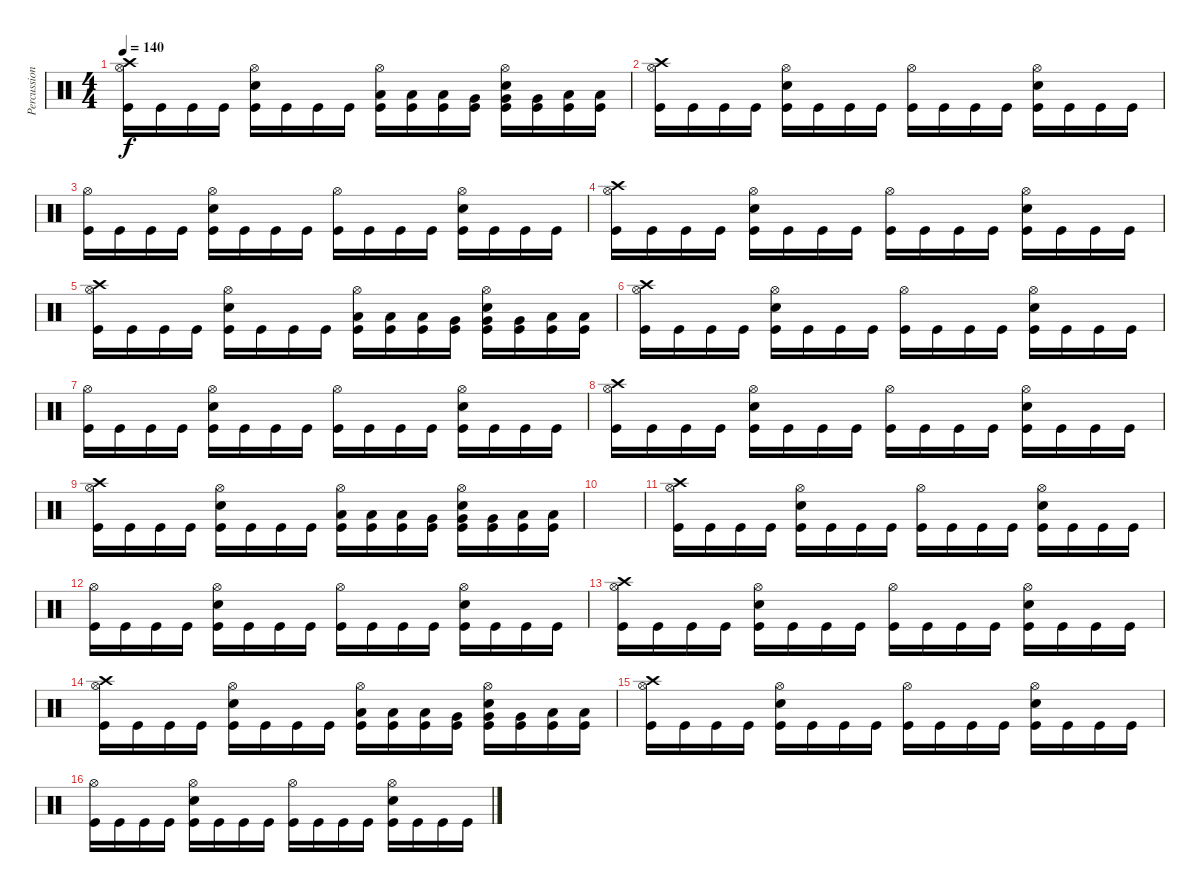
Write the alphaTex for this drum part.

\track ("Percussion" "Percussion") {instrument percussion}
\staff {score}
\articulation defaults
\ts (4 4)
\tempo 140
\clef neutral
\ks c
("Crash high (hit)" "Hi-Hat (open)" "Kick (hit)").16{dy f} "Kick (hit)".16 "Kick (hit)".16 "Kick (hit)".16 ("Hi-Hat (open)" "Electric Snare (hit)" "Kick (hit)").16 "Kick (hit)".16 "Kick (hit)".16 "Kick (hit)".16 ("Low Tom (hit)" "Hi-Hat (open)" "Kick (hit)").16 ("Low Tom (hit)" "Kick (hit)").16 ("Low Tom (hit)" "Kick (hit)").16 ("Very Low Tom (hit)" "Kick (hit)").16 ("Very Low Tom (hit)" "Hi-Hat (open)" "Electric Snare (hit)" "Kick (hit)").16 ("Very Low Tom (hit)" "Kick (hit)").16 ("Low Floor Tom (hit)" "Kick (hit)").16 ("Low Floor Tom (hit)" "Kick (hit)").16 |
("Crash high (hit)" "Hi-Hat (open)" "Kick (hit)").16 "Kick (hit)".16 "Kick (hit)".16 "Kick (hit)".16 ("Hi-Hat (open)" "Electric Snare (hit)" "Kick (hit)").16 "Kick (hit)".16 "Kick (hit)".16 "Kick (hit)".16 ("Hi-Hat (open)" "Kick (hit)").16 "Kick (hit)".16 "Kick (hit)".16 "Kick (hit)".16 ("Hi-Hat (open)" "Electric Snare (hit)" "Kick (hit)").16 "Kick (hit)".16 "Kick (hit)".16 "Kick (hit)".16 |
("Hi-Hat (open)" "Kick (hit)").16 "Kick (hit)".16 "Kick (hit)".16 "Kick (hit)".16 ("Hi-Hat (open)" "Electric Snare (hit)" "Kick (hit)").16 "Kick (hit)".16 "Kick (hit)".16 "Kick (hit)".16 ("Hi-Hat (open)" "Kick (hit)").16 "Kick (hit)".16 "Kick (hit)".16 "Kick (hit)".16 ("Hi-Hat (open)" "Electric Snare (hit)" "Kick (hit)").16 "Kick (hit)".16 "Kick (hit)".16 "Kick (hit)".16 |
("Crash high (hit)" "Hi-Hat (open)" "Kick (hit)").16 "Kick (hit)".16 "Kick (hit)".16 "Kick (hit)".16 ("Hi-Hat (open)" "Electric Snare (hit)" "Kick (hit)").16 "Kick (hit)".16 "Kick (hit)".16 "Kick (hit)".16 ("Hi-Hat (open)" "Kick (hit)").16 "Kick (hit)".16 "Kick (hit)".16 "Kick (hit)".16 ("Hi-Hat (open)" "Electric Snare (hit)" "Kick (hit)").16 "Kick (hit)".16 "Kick (hit)".16 "Kick (hit)".16 |
("Crash high (hit)" "Hi-Hat (open)" "Kick (hit)").16 "Kick (hit)".16 "Kick (hit)".16 "Kick (hit)".16 ("Hi-Hat (open)" "Electric Snare (hit)" "Kick (hit)").16 "Kick (hit)".16 "Kick (hit)".16 "Kick (hit)".16 ("Low Tom (hit)" "Hi-Hat (open)" "Kick (hit)").16 ("Low Tom (hit)" "Kick (hit)").16 ("Low Tom (hit)" "Kick (hit)").16 ("Very Low Tom (hit)" "Kick (hit)").16 ("Very Low Tom (hit)" "Hi-Hat (open)" "Electric Snare (hit)" "Kick (hit)").16 ("Very Low Tom (hit)" "Kick (hit)").16 ("Low Floor Tom (hit)" "Kick (hit)").16 ("Low Floor Tom (hit)" "Kick (hit)").16 |
("Crash high (hit)" "Hi-Hat (open)" "Kick (hit)").16 "Kick (hit)".16 "Kick (hit)".16 "Kick (hit)".16 ("Hi-Hat (open)" "Electric Snare (hit)" "Kick (hit)").16 "Kick (hit)".16 "Kick (hit)".16 "Kick (hit)".16 ("Hi-Hat (open)" "Kick (hit)").16 "Kick (hit)".16 "Kick (hit)".16 "Kick (hit)".16 ("Hi-Hat (open)" "Electric Snare (hit)" "Kick (hit)").16 "Kick (hit)".16 "Kick (hit)".16 "Kick (hit)".16 |
("Hi-Hat (open)" "Kick (hit)").16 "Kick (hit)".16 "Kick (hit)".16 "Kick (hit)".16 ("Hi-Hat (open)" "Electric Snare (hit)" "Kick (hit)").16 "Kick (hit)".16 "Kick (hit)".16 "Kick (hit)".16 ("Hi-Hat (open)" "Kick (hit)").16 "Kick (hit)".16 "Kick (hit)".16 "Kick (hit)".16 ("Hi-Hat (open)" "Electric Snare (hit)" "Kick (hit)").16 "Kick (hit)".16 "Kick (hit)".16 "Kick (hit)".16 |
("Crash high (hit)" "Hi-Hat (open)" "Kick (hit)").16 "Kick (hit)".16 "Kick (hit)".16 "Kick (hit)".16 ("Hi-Hat (open)" "Electric Snare (hit)" "Kick (hit)").16 "Kick (hit)".16 "Kick (hit)".16 "Kick (hit)".16 ("Hi-Hat (open)" "Kick (hit)").16 "Kick (hit)".16 "Kick (hit)".16 "Kick (hit)".16 ("Hi-Hat (open)" "Electric Snare (hit)" "Kick (hit)").16 "Kick (hit)".16 "Kick (hit)".16 "Kick (hit)".16 |
("Crash high (hit)" "Hi-Hat (open)" "Kick (hit)").16 "Kick (hit)".16 "Kick (hit)".16 "Kick (hit)".16 ("Hi-Hat (open)" "Electric Snare (hit)" "Kick (hit)").16 "Kick (hit)".16 "Kick (hit)".16 "Kick (hit)".16 ("Low Tom (hit)" "Hi-Hat (open)" "Kick (hit)").16 ("Low Tom (hit)" "Kick (hit)").16 ("Low Tom (hit)" "Kick (hit)").16 ("Very Low Tom (hit)" "Kick (hit)").16 ("Very Low Tom (hit)" "Hi-Hat (open)" "Electric Snare (hit)" "Kick (hit)").16 ("Very Low Tom (hit)" "Kick (hit)").16 ("Low Floor Tom (hit)" "Kick (hit)").16 ("Low Floor Tom (hit)" "Kick (hit)").16 |
|
("Crash high (hit)" "Hi-Hat (open)" "Kick (hit)").16 "Kick (hit)".16 "Kick (hit)".16 "Kick (hit)".16 ("Hi-Hat (open)" "Electric Snare (hit)" "Kick (hit)").16 "Kick (hit)".16 "Kick (hit)".16 "Kick (hit)".16 ("Hi-Hat (open)" "Kick (hit)").16 "Kick (hit)".16 "Kick (hit)".16 "Kick (hit)".16 ("Hi-Hat (open)" "Electric Snare (hit)" "Kick (hit)").16 "Kick (hit)".16 "Kick (hit)".16 "Kick (hit)".16 |
("Hi-Hat (open)" "Kick (hit)").16 "Kick (hit)".16 "Kick (hit)".16 "Kick (hit)".16 ("Hi-Hat (open)" "Electric Snare (hit)" "Kick (hit)").16 "Kick (hit)".16 "Kick (hit)".16 "Kick (hit)".16 ("Hi-Hat (open)" "Kick (hit)").16 "Kick (hit)".16 "Kick (hit)".16 "Kick (hit)".16 ("Hi-Hat (open)" "Electric Snare (hit)" "Kick (hit)").16 "Kick (hit)".16 "Kick (hit)".16 "Kick (hit)".16 |
("Crash high (hit)" "Hi-Hat (open)" "Kick (hit)").16 "Kick (hit)".16 "Kick (hit)".16 "Kick (hit)".16 ("Hi-Hat (open)" "Electric Snare (hit)" "Kick (hit)").16 "Kick (hit)".16 "Kick (hit)".16 "Kick (hit)".16 ("Hi-Hat (open)" "Kick (hit)").16 "Kick (hit)".16 "Kick (hit)".16 "Kick (hit)".16 ("Hi-Hat (open)" "Electric Snare (hit)" "Kick (hit)").16 "Kick (hit)".16 "Kick (hit)".16 "Kick (hit)".16 |
("Crash high (hit)" "Hi-Hat (open)" "Kick (hit)").16 "Kick (hit)".16 "Kick (hit)".16 "Kick (hit)".16 ("Hi-Hat (open)" "Electric Snare (hit)" "Kick (hit)").16 "Kick (hit)".16 "Kick (hit)".16 "Kick (hit)".16 ("Low Tom (hit)" "Hi-Hat (open)" "Kick (hit)").16 ("Low Tom (hit)" "Kick (hit)").16 ("Low Tom (hit)" "Kick (hit)").16 ("Very Low Tom (hit)" "Kick (hit)").16 ("Very Low Tom (hit)" "Hi-Hat (open)" "Electric Snare (hit)" "Kick (hit)").16 ("Very Low Tom (hit)" "Kick (hit)").16 ("Low Floor Tom (hit)" "Kick (hit)").16 ("Low Floor Tom (hit)" "Kick (hit)").16 |
("Crash high (hit)" "Hi-Hat (open)" "Kick (hit)").16 "Kick (hit)".16 "Kick (hit)".16 "Kick (hit)".16 ("Hi-Hat (open)" "Electric Snare (hit)" "Kick (hit)").16 "Kick (hit)".16 "Kick (hit)".16 "Kick (hit)".16 ("Hi-Hat (open)" "Kick (hit)").16 "Kick (hit)".16 "Kick (hit)".16 "Kick (hit)".16 ("Hi-Hat (open)" "Electric Snare (hit)" "Kick (hit)").16 "Kick (hit)".16 "Kick (hit)".16 "Kick (hit)".16 |
("Hi-Hat (open)" "Kick (hit)").16 "Kick (hit)".16 "Kick (hit)".16 "Kick (hit)".16 ("Hi-Hat (open)" "Electric Snare (hit)" "Kick (hit)").16 "Kick (hit)".16 "Kick (hit)".16 "Kick (hit)".16 ("Hi-Hat (open)" "Kick (hit)").16 "Kick (hit)".16 "Kick (hit)".16 "Kick (hit)".16 ("Hi-Hat (open)" "Electric Snare (hit)" "Kick (hit)").16 "Kick (hit)".16 "Kick (hit)".16 "Kick (hit)".16
